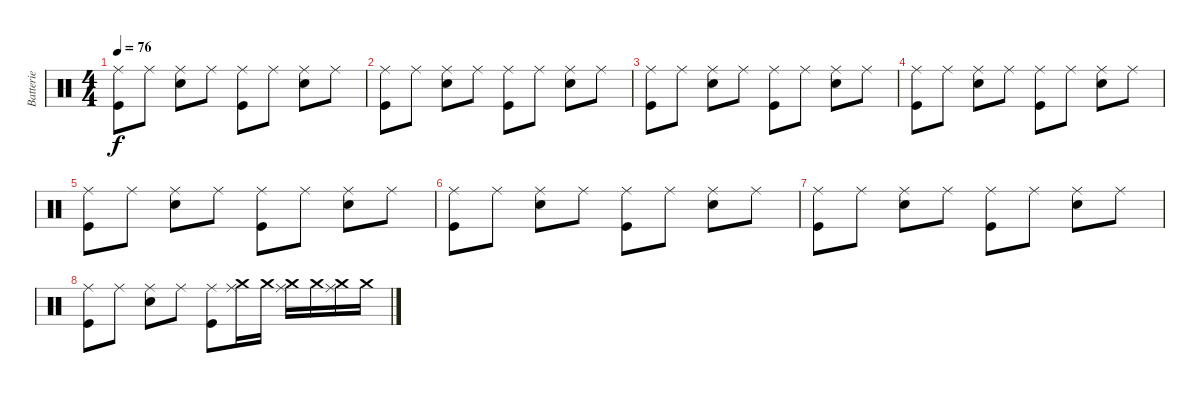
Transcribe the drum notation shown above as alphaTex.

\track ("Batterie" "Batterie") {instrument percussion}
\staff {score}
\articulation defaults
\ts (4 4)
\tempo 76
\clef neutral
\ks c
("Ride (middle)" "Kick (hit)").8{dy f} "Ride (middle)".8 ("Ride (middle)" "Snare (hit) 2").8 "Ride (middle)".8 ("Ride (middle)" "Kick (hit)").8 "Ride (middle)".8 ("Ride (middle)" "Snare (hit) 2").8 "Ride (middle)".8 |
("Ride (middle)" "Kick (hit)").8 "Ride (middle)".8 ("Ride (middle)" "Snare (hit) 2").8 "Ride (middle)".8 ("Ride (middle)" "Kick (hit)").8 "Ride (middle)".8 ("Ride (middle)" "Snare (hit) 2").8 "Ride (middle)".8 |
("Ride (middle)" "Kick (hit)").8 "Ride (middle)".8 ("Ride (middle)" "Snare (hit) 2").8 "Ride (middle)".8 ("Ride (middle)" "Kick (hit)").8 "Ride (middle)".8 ("Ride (middle)" "Snare (hit) 2").8 "Ride (middle)".8 |
("Ride (middle)" "Kick (hit)").8 "Ride (middle)".8 ("Ride (middle)" "Snare (hit) 2").8 "Ride (middle)".8 ("Ride (middle)" "Kick (hit)").8 "Ride (middle)".8 ("Ride (middle)" "Snare (hit) 2").8 "Ride (middle)".8 |
("Ride (middle)" "Kick (hit)").8 "Ride (middle)".8 ("Ride (middle)" "Snare (hit) 2").8 "Ride (middle)".8 ("Ride (middle)" "Kick (hit)").8 "Ride (middle)".8 ("Ride (middle)" "Snare (hit) 2").8 "Ride (middle)".8 |
("Ride (middle)" "Kick (hit)").8 "Ride (middle)".8 ("Ride (middle)" "Snare (hit) 2").8 "Ride (middle)".8 ("Ride (middle)" "Kick (hit)").8 "Ride (middle)".8 ("Ride (middle)" "Snare (hit) 2").8 "Ride (middle)".8 |
("Ride (middle)" "Kick (hit)").8 "Ride (middle)".8 ("Ride (middle)" "Snare (hit) 2").8 "Ride (middle)".8 ("Ride (middle)" "Kick (hit)").8 "Ride (middle)".8 ("Ride (middle)" "Snare (hit) 2").8 "Ride (middle)".8 |
("Ride (middle)" "Kick (hit)").8 "Ride (middle)".8 ("Ride (middle)" "Snare (hit) 2").8 "Ride (middle)".8 ("Ride (middle)" "Kick (hit)").8 ("Ride (middle)" "Crash medium (hit)").16 "Crash medium (hit)".16 ("Ride (middle)" "Crash medium (hit)").16 "Crash medium (hit)".16 ("Ride (middle)" "Crash medium (hit)").16 "Crash medium (hit)".16
